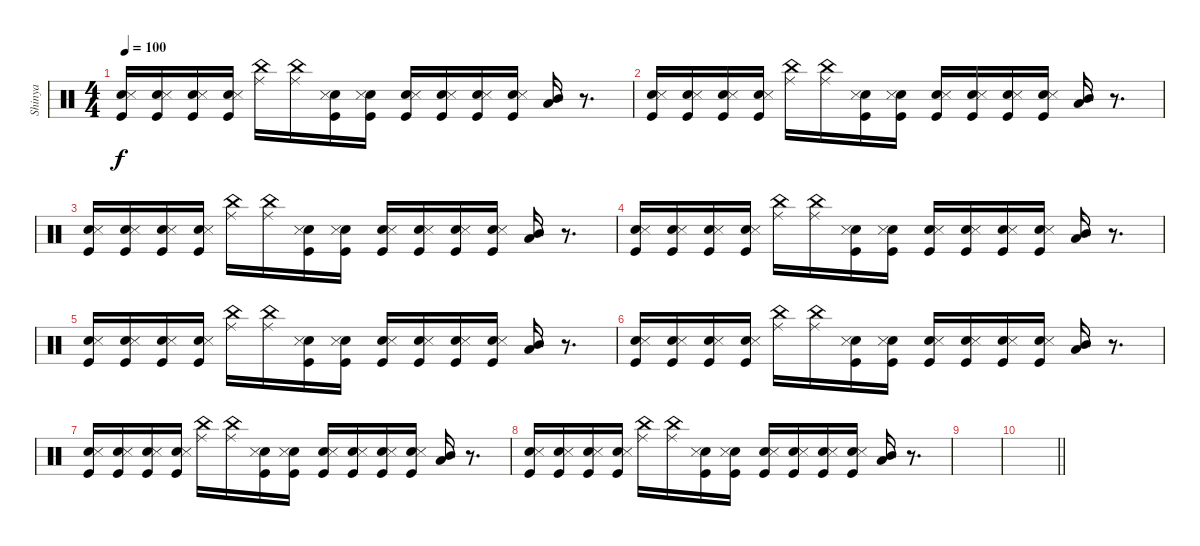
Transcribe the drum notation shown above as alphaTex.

\track ("Shinya" "Shinya") {instrument percussion}
\staff {score}
\articulation defaults
\ts (4 4)
\tempo 100
\clef neutral
\ks c
("Snare (hit) 2" "Snare (side stick) 3" "Kick (hit)").16{dy f} ("Snare (hit) 2" "Snare (side stick) 3" "Kick (hit)").16 ("Snare (hit) 2" "Snare (side stick) 3" "Kick (hit)").16 ("Snare (hit) 2" "Snare (side stick) 3" "Kick (hit)").16 ("Ride (middle)" "China (hit)").16 ("Ride (middle)" "China (hit)").16 ("Snare (hit) 2" "Snare (side stick) 3" "Kick (hit)").16 ("Snare (hit) 2" "Snare (side stick) 3" "Kick (hit)").16 ("Snare (hit) 2" "Snare (side stick) 3" "Kick (hit)").16 ("Snare (hit) 2" "Snare (side stick) 3" "Kick (hit)").16 ("Snare (hit) 2" "Snare (side stick) 3" "Kick (hit)").16 ("Snare (hit) 2" "Snare (side stick) 3" "Kick (hit)").16 ("Mid Tom (hit)" "Low Tom (hit)").16 r.8{d} |
("Snare (hit) 2" "Snare (side stick) 3" "Kick (hit)").16 ("Snare (hit) 2" "Snare (side stick) 3" "Kick (hit)").16 ("Snare (hit) 2" "Snare (side stick) 3" "Kick (hit)").16 ("Snare (hit) 2" "Snare (side stick) 3" "Kick (hit)").16 ("Ride (middle)" "China (hit)").16 ("Ride (middle)" "China (hit)").16 ("Snare (hit) 2" "Snare (side stick) 3" "Kick (hit)").16 ("Snare (hit) 2" "Snare (side stick) 3" "Kick (hit)").16 ("Snare (hit) 2" "Snare (side stick) 3" "Kick (hit)").16 ("Snare (hit) 2" "Snare (side stick) 3" "Kick (hit)").16 ("Snare (hit) 2" "Snare (side stick) 3" "Kick (hit)").16 ("Snare (hit) 2" "Snare (side stick) 3" "Kick (hit)").16 ("Mid Tom (hit)" "Low Tom (hit)").16 r.8{d} |
("Snare (hit) 2" "Snare (side stick) 3" "Kick (hit)").16 ("Snare (hit) 2" "Snare (side stick) 3" "Kick (hit)").16 ("Snare (hit) 2" "Snare (side stick) 3" "Kick (hit)").16 ("Snare (hit) 2" "Snare (side stick) 3" "Kick (hit)").16 ("Ride (middle)" "China (hit)").16 ("Ride (middle)" "China (hit)").16 ("Snare (hit) 2" "Snare (side stick) 3" "Kick (hit)").16 ("Snare (hit) 2" "Snare (side stick) 3" "Kick (hit)").16 ("Snare (hit) 2" "Snare (side stick) 3" "Kick (hit)").16 ("Snare (hit) 2" "Snare (side stick) 3" "Kick (hit)").16 ("Snare (hit) 2" "Snare (side stick) 3" "Kick (hit)").16 ("Snare (hit) 2" "Snare (side stick) 3" "Kick (hit)").16 ("Mid Tom (hit)" "Low Tom (hit)").16 r.8{d} |
("Snare (hit) 2" "Snare (side stick) 3" "Kick (hit)").16 ("Snare (hit) 2" "Snare (side stick) 3" "Kick (hit)").16 ("Snare (hit) 2" "Snare (side stick) 3" "Kick (hit)").16 ("Snare (hit) 2" "Snare (side stick) 3" "Kick (hit)").16 ("Ride (middle)" "China (hit)").16 ("Ride (middle)" "China (hit)").16 ("Snare (hit) 2" "Snare (side stick) 3" "Kick (hit)").16 ("Snare (hit) 2" "Snare (side stick) 3" "Kick (hit)").16 ("Snare (hit) 2" "Snare (side stick) 3" "Kick (hit)").16 ("Snare (hit) 2" "Snare (side stick) 3" "Kick (hit)").16 ("Snare (hit) 2" "Snare (side stick) 3" "Kick (hit)").16 ("Snare (hit) 2" "Snare (side stick) 3" "Kick (hit)").16 ("Mid Tom (hit)" "Low Tom (hit)").16 r.8{d} |
("Snare (hit) 2" "Snare (side stick) 3" "Kick (hit)").16 ("Snare (hit) 2" "Snare (side stick) 3" "Kick (hit)").16 ("Snare (hit) 2" "Snare (side stick) 3" "Kick (hit)").16 ("Snare (hit) 2" "Snare (side stick) 3" "Kick (hit)").16 ("Ride (middle)" "China (hit)").16 ("Ride (middle)" "China (hit)").16 ("Snare (hit) 2" "Snare (side stick) 3" "Kick (hit)").16 ("Snare (hit) 2" "Snare (side stick) 3" "Kick (hit)").16 ("Snare (hit) 2" "Snare (side stick) 3" "Kick (hit)").16 ("Snare (hit) 2" "Snare (side stick) 3" "Kick (hit)").16 ("Snare (hit) 2" "Snare (side stick) 3" "Kick (hit)").16 ("Snare (hit) 2" "Snare (side stick) 3" "Kick (hit)").16 ("Mid Tom (hit)" "Low Tom (hit)").16 r.8{d} |
("Snare (hit) 2" "Snare (side stick) 3" "Kick (hit)").16 ("Snare (hit) 2" "Snare (side stick) 3" "Kick (hit)").16 ("Snare (hit) 2" "Snare (side stick) 3" "Kick (hit)").16 ("Snare (hit) 2" "Snare (side stick) 3" "Kick (hit)").16 ("Ride (middle)" "China (hit)").16 ("Ride (middle)" "China (hit)").16 ("Snare (hit) 2" "Snare (side stick) 3" "Kick (hit)").16 ("Snare (hit) 2" "Snare (side stick) 3" "Kick (hit)").16 ("Snare (hit) 2" "Snare (side stick) 3" "Kick (hit)").16 ("Snare (hit) 2" "Snare (side stick) 3" "Kick (hit)").16 ("Snare (hit) 2" "Snare (side stick) 3" "Kick (hit)").16 ("Snare (hit) 2" "Snare (side stick) 3" "Kick (hit)").16 ("Mid Tom (hit)" "Low Tom (hit)").16 r.8{d} |
("Snare (hit) 2" "Snare (side stick) 3" "Kick (hit)").16 ("Snare (hit) 2" "Snare (side stick) 3" "Kick (hit)").16 ("Snare (hit) 2" "Snare (side stick) 3" "Kick (hit)").16 ("Snare (hit) 2" "Snare (side stick) 3" "Kick (hit)").16 ("Ride (middle)" "China (hit)").16 ("Ride (middle)" "China (hit)").16 ("Snare (hit) 2" "Snare (side stick) 3" "Kick (hit)").16 ("Snare (hit) 2" "Snare (side stick) 3" "Kick (hit)").16 ("Snare (hit) 2" "Snare (side stick) 3" "Kick (hit)").16 ("Snare (hit) 2" "Snare (side stick) 3" "Kick (hit)").16 ("Snare (hit) 2" "Snare (side stick) 3" "Kick (hit)").16 ("Snare (hit) 2" "Snare (side stick) 3" "Kick (hit)").16 ("Mid Tom (hit)" "Low Tom (hit)").16 r.8{d} |
("Snare (hit) 2" "Snare (side stick) 3" "Kick (hit)").16 ("Snare (hit) 2" "Snare (side stick) 3" "Kick (hit)").16 ("Snare (hit) 2" "Snare (side stick) 3" "Kick (hit)").16 ("Snare (hit) 2" "Snare (side stick) 3" "Kick (hit)").16 ("Ride (middle)" "China (hit)").16 ("Ride (middle)" "China (hit)").16 ("Snare (hit) 2" "Snare (side stick) 3" "Kick (hit)").16 ("Snare (hit) 2" "Snare (side stick) 3" "Kick (hit)").16 ("Snare (hit) 2" "Snare (side stick) 3" "Kick (hit)").16 ("Snare (hit) 2" "Snare (side stick) 3" "Kick (hit)").16 ("Snare (hit) 2" "Snare (side stick) 3" "Kick (hit)").16 ("Snare (hit) 2" "Snare (side stick) 3" "Kick (hit)").16 ("Mid Tom (hit)" "Low Tom (hit)").16 r.8{d} |
|
\barLineRight lightlight
